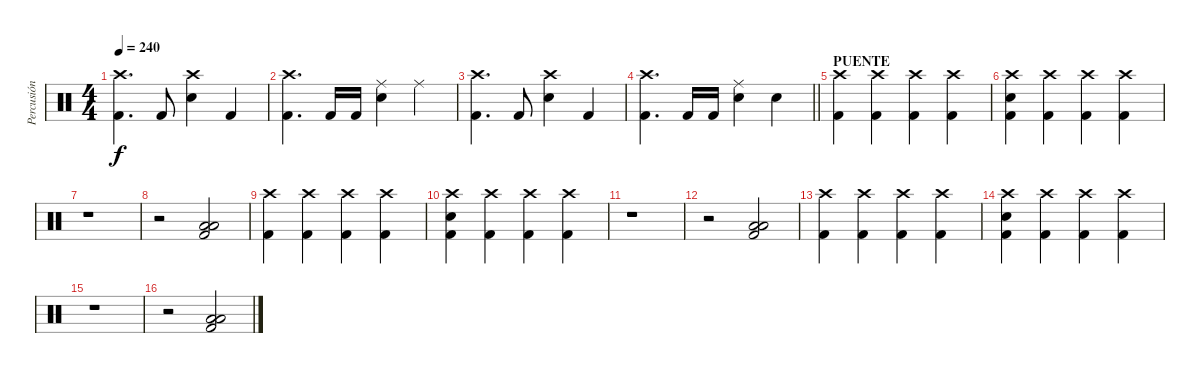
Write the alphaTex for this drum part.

\track ("Percusión" "Percusión") {instrument percussion}
\staff {score}
\articulation defaults
\ts (4 4)
\tempo 240
\clef neutral
\ks c
("Crash high (hit)" "Kick (hit) 2").4{d dy f} "Kick (hit) 2".8 ("Crash high (hit)" "Electric Snare (hit)").4 "Kick (hit) 2".4 |
("Crash high (hit)" "Kick (hit) 2").4{d} "Kick (hit) 2".16 "Kick (hit) 2".16 ("Ride (middle)" "Electric Snare (hit)").4 "Ride (middle)".4 |
("Crash high (hit)" "Kick (hit) 2").4{d} "Kick (hit) 2".8 ("Crash high (hit)" "Electric Snare (hit)").4 "Kick (hit) 2".4 |
\barLineRight lightlight
("Crash high (hit)" "Kick (hit) 2").4{d} "Kick (hit) 2".16 "Kick (hit) 2".16 ("Ride (middle)" "Electric Snare (hit)").4 "Electric Snare (hit)".4 |
\section ("" "PUENTE ")
("Crash high (hit)" "Kick (hit) 2").4 ("Crash high (hit)" "Kick (hit) 2").4 ("Crash high (hit)" "Kick (hit) 2").4 ("Crash high (hit)" "Kick (hit) 2").4 |
("Crash high (hit)" "Electric Snare (hit)" "Kick (hit) 2").4 ("Crash high (hit)" "Kick (hit) 2").4 ("Crash high (hit)" "Kick (hit) 2").4 ("Crash high (hit)" "Kick (hit) 2").4 |
r.1 |
r.2 ("Low Tom (hit)" "Low Floor Tom (hit)" "Kick (hit) 2").2 |
("Crash high (hit)" "Kick (hit) 2").4 ("Crash high (hit)" "Kick (hit) 2").4 ("Crash high (hit)" "Kick (hit) 2").4 ("Crash high (hit)" "Kick (hit) 2").4 |
("Crash high (hit)" "Electric Snare (hit)" "Kick (hit) 2").4 ("Crash high (hit)" "Kick (hit) 2").4 ("Crash high (hit)" "Kick (hit) 2").4 ("Crash high (hit)" "Kick (hit) 2").4 |
r.1 |
r.2 ("Low Tom (hit)" "Low Floor Tom (hit)" "Kick (hit) 2").2 |
("Crash high (hit)" "Kick (hit) 2").4 ("Crash high (hit)" "Kick (hit) 2").4 ("Crash high (hit)" "Kick (hit) 2").4 ("Crash high (hit)" "Kick (hit) 2").4 |
("Crash high (hit)" "Electric Snare (hit)" "Kick (hit) 2").4 ("Crash high (hit)" "Kick (hit) 2").4 ("Crash high (hit)" "Kick (hit) 2").4 ("Crash high (hit)" "Kick (hit) 2").4 |
r.1 |
r.2 ("Low Tom (hit)" "Low Floor Tom (hit)" "Kick (hit) 2").2
